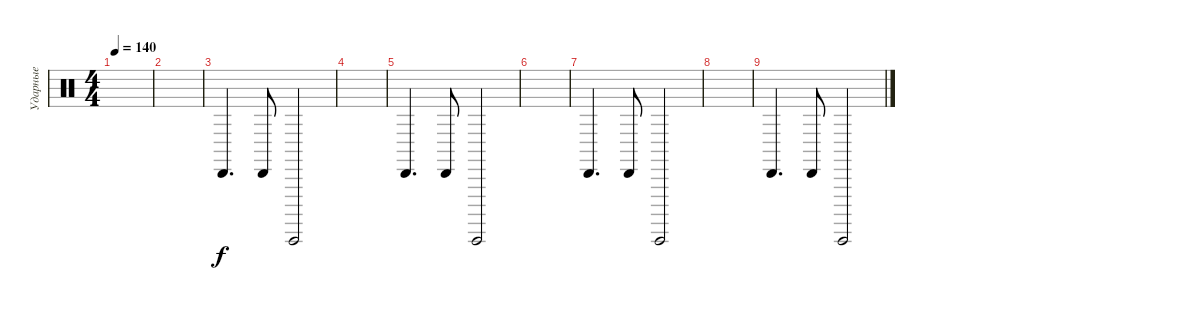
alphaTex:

\track ("Ударные" "Ударные") {instrument percussion}
\staff {score}
\articulation defaults
\ts (4 4)
\tempo 140
\clef neutral
\ks c
|
|
"Cabasa (hit)".4{d} "Cabasa (hit)".8 "Guiro (hit)".2 |
|
"Cabasa (hit)".4{d} "Cabasa (hit)".8 "Guiro (hit)".2 |
|
"Cabasa (hit)".4{d} "Cabasa (hit)".8 "Guiro (hit)".2 |
|
"Cabasa (hit)".4{d} "Cabasa (hit)".8 "Guiro (hit)".2
